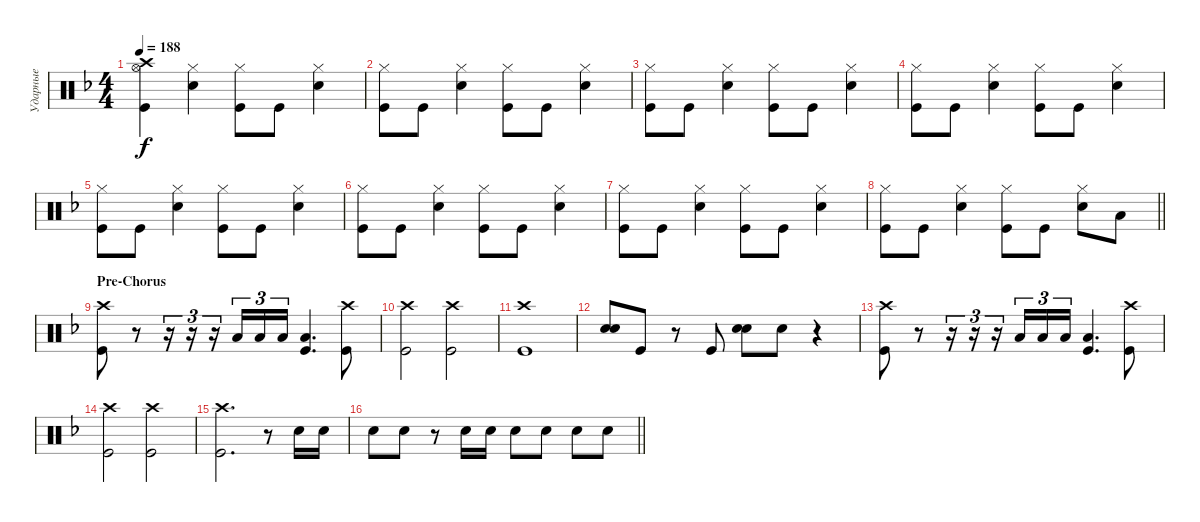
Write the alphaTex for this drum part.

\track ("Ударные" "Ударные") {instrument percussion}
\staff {score}
\articulation defaults
\ts (4 4)
\tempo 188
\clef neutral
\ks dminor
("Kick (hit)" "Crash high (hit)" "Hi-Hat (open)").4{dy f} ("Snare (hit) 2" "Hi-Hat (closed)").4 ("Kick (hit)" "Hi-Hat (closed)").8 "Kick (hit)".8 ("Hi-Hat (closed)" "Snare (hit) 2").4 |
("Kick (hit)" "Hi-Hat (closed)").8 "Kick (hit)".8 ("Snare (hit) 2" "Hi-Hat (closed)").4 ("Kick (hit)" "Hi-Hat (closed)").8 "Kick (hit)".8 ("Hi-Hat (closed)" "Snare (hit) 2").4 |
("Kick (hit)" "Hi-Hat (closed)").8 "Kick (hit)".8 ("Snare (hit) 2" "Hi-Hat (closed)").4 ("Kick (hit)" "Hi-Hat (closed)").8 "Kick (hit)".8 ("Hi-Hat (closed)" "Snare (hit) 2").4 |
("Kick (hit)" "Hi-Hat (closed)").8 "Kick (hit)".8 ("Snare (hit) 2" "Hi-Hat (closed)").4 ("Kick (hit)" "Hi-Hat (closed)").8 "Kick (hit)".8 ("Hi-Hat (closed)" "Snare (hit) 2").4 |
("Kick (hit)" "Hi-Hat (closed)").8 "Kick (hit)".8 ("Snare (hit) 2" "Hi-Hat (closed)").4 ("Kick (hit)" "Hi-Hat (closed)").8 "Kick (hit)".8 ("Hi-Hat (closed)" "Snare (hit) 2").4 |
("Kick (hit)" "Hi-Hat (closed)").8 "Kick (hit)".8 ("Snare (hit) 2" "Hi-Hat (closed)").4 ("Kick (hit)" "Hi-Hat (closed)").8 "Kick (hit)".8 ("Hi-Hat (closed)" "Snare (hit) 2").4 |
("Kick (hit)" "Hi-Hat (closed)").8 "Kick (hit)".8 ("Snare (hit) 2" "Hi-Hat (closed)").4 ("Kick (hit)" "Hi-Hat (closed)").8 "Kick (hit)".8 ("Hi-Hat (closed)" "Snare (hit) 2").4 |
\barLineRight lightlight
("Kick (hit)" "Hi-Hat (closed)").8 "Kick (hit)".8 ("Snare (hit) 2" "Hi-Hat (closed)").4 ("Kick (hit)" "Hi-Hat (closed)").8 "Kick (hit)".8 ("Hi-Hat (closed)" "Snare (hit) 2").8 "Low Tom (hit)".8 |
\section ("" "Pre-Chorus")
("Kick (hit)" "Crash high (hit)").8 r.8 r.16{tu (3 2)} r.16{tu (3 2)} r.16{tu (3 2)} "Low Floor Tom (hit)".16{tu (3 2)} "Low Floor Tom (hit)".16{tu (3 2)} "Low Floor Tom (hit)".16{tu (3 2)} ("Kick (hit)" "Low Floor Tom (hit)").4{d} ("Kick (hit)" "Crash high (hit)").8 |
("Kick (hit)" "Crash high (hit)").2 ("Kick (hit)" "Crash high (hit)").2 |
("Kick (hit)" "Crash high (hit)").1 |
("Snare (hit) 2" "Snare (hit) 2").8{bd 240} "Kick (hit)".8 r.8 "Kick (hit)".8 ("Snare (hit) 2" "Snare (hit) 2").8{bd 240} "Snare (hit) 2".8 r.4 |
("Kick (hit)" "Crash high (hit)").8 r.8 r.16{tu (3 2)} r.16{tu (3 2)} r.16{tu (3 2)} "Low Floor Tom (hit)".16{tu (3 2)} "Low Floor Tom (hit)".16{tu (3 2)} "Low Floor Tom (hit)".16{tu (3 2)} ("Kick (hit)" "Low Floor Tom (hit)").4{d} ("Kick (hit)" "Crash high (hit)").8 |
("Kick (hit)" "Crash high (hit)").2 ("Kick (hit)" "Crash high (hit)").2 |
("Kick (hit)" "Crash high (hit)").2{d} r.8 "Snare (hit) 2".16 "Snare (hit) 2".16 |
\barLineRight lightlight "Snare (hit) 2".8 "Snare (hit) 2".8
r.8 "Snare (hit) 2".16 "Snare (hit) 2".16 "Snare (hit) 2".8 "Snare (hit) 2".8 "Snare (hit) 2".8 "Snare (hit) 2".8
